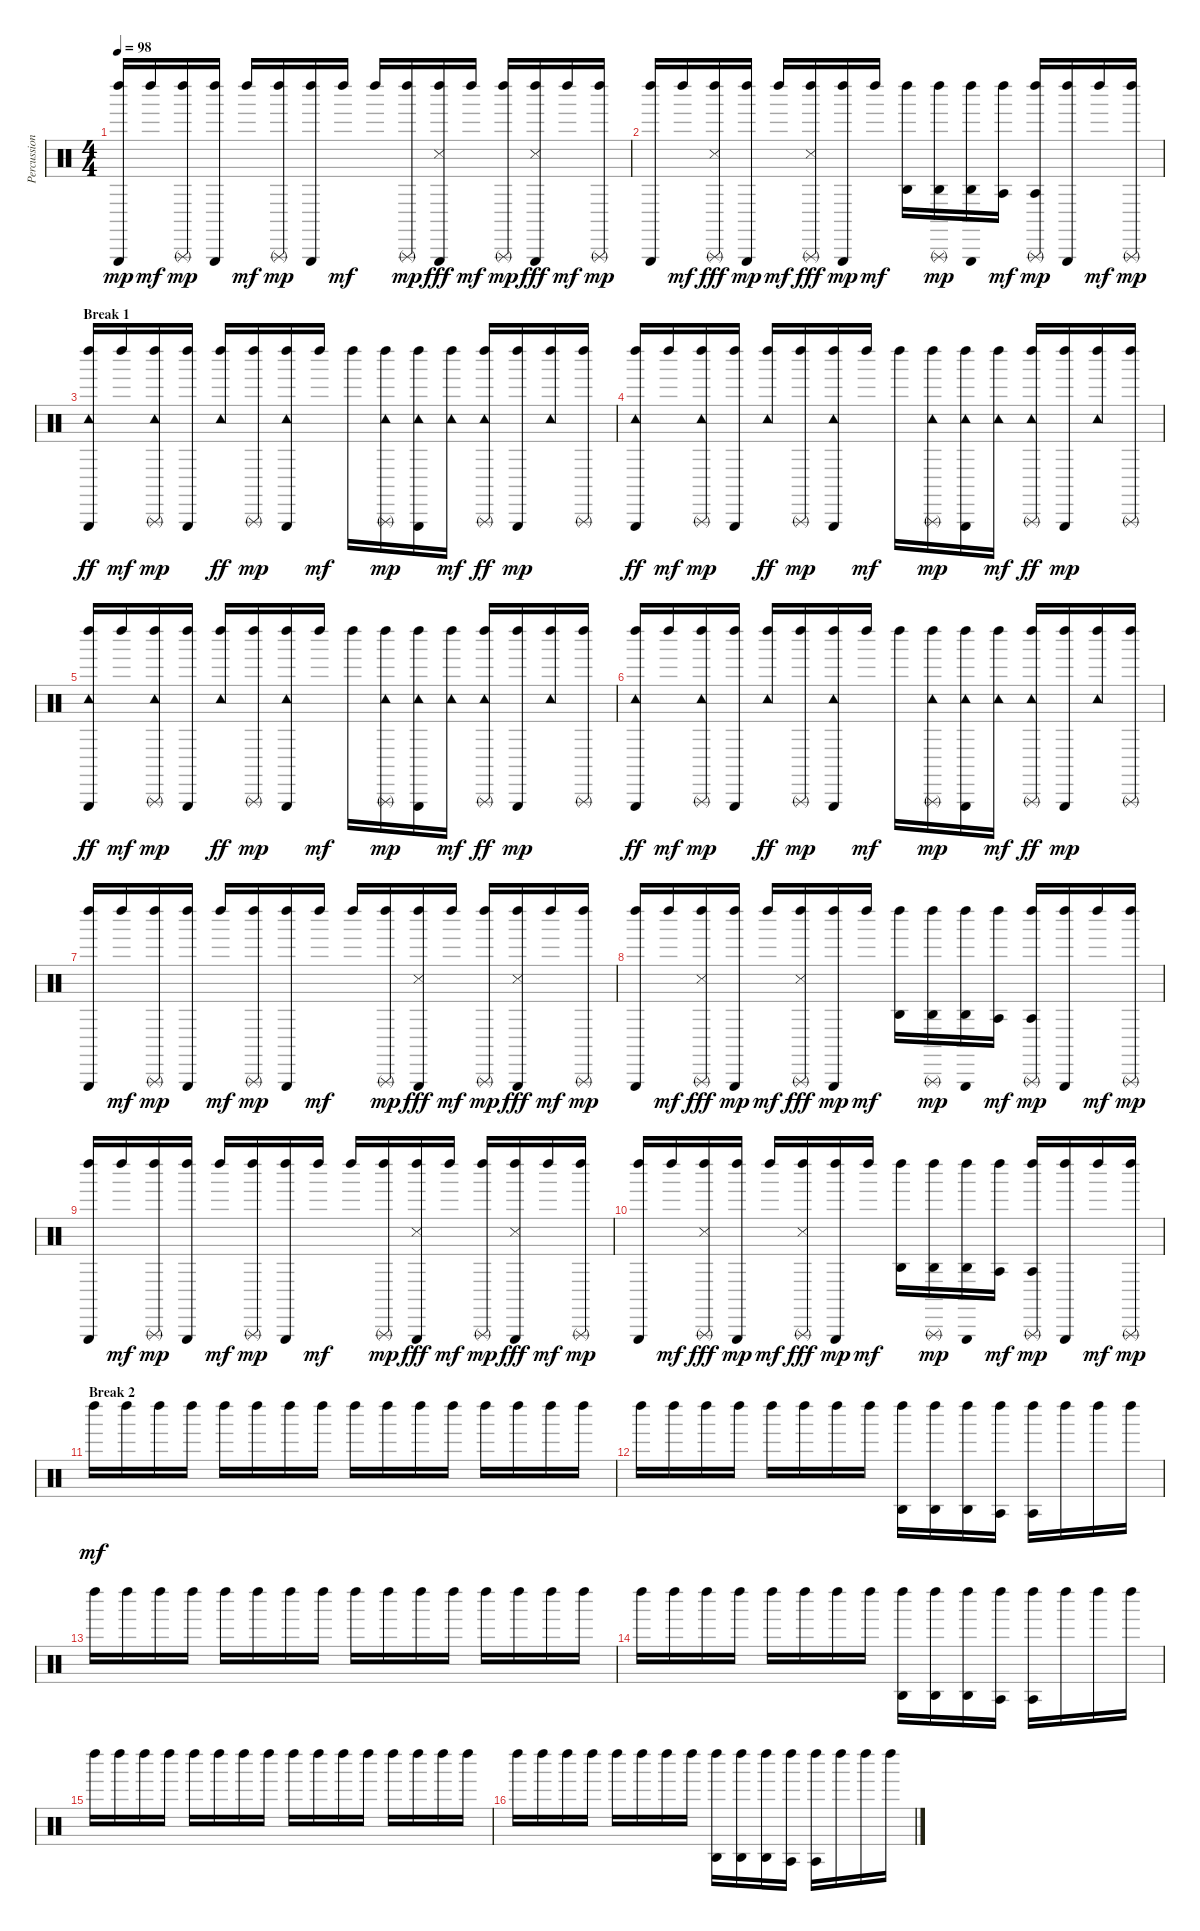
\track ("Percussions" "Percussion") {instrument percussion}
\staff {score}
\articulation defaults
\ts (4 4)
\tempo 98
\clef neutral
\ks c
("Left Maraca (hit)" "Triangle (hit)").16{dy mp} "Left Maraca (hit)".16{dy mf} ("Left Maraca (hit)" "Triangle (rnute)").16{dy mp} ("Left Maraca (hit)" "Triangle (hit)").16 "Left Maraca (hit)".16{dy mf} ("Left Maraca (hit)" "Triangle (rnute)").16{dy mp} ("Left Maraca (hit)" "Triangle (hit)").16 "Left Maraca (hit)".16{dy mf} "Left Maraca (hit)".16 ("Left Maraca (hit)" "Triangle (rnute)").16{dy mp} ("Left Maraca (hit)" "Triangle (hit)" "Snare (side stick) 3").16{dy fff} "Left Maraca (hit)".16{dy mf} ("Left Maraca (hit)" "Triangle (rnute)").16{dy mp} ("Left Maraca (hit)" "Triangle (hit)" "Snare (side stick) 3").16{dy fff} "Left Maraca (hit)".16{dy mf} ("Left Maraca (hit)" "Triangle (rnute)").16{dy mp} |
("Left Maraca (hit)" "Triangle (hit)").16 "Left Maraca (hit)".16{dy mf} ("Left Maraca (hit)" "Triangle (rnute)" "Snare (side stick) 3").16{dy fff} ("Left Maraca (hit)" "Triangle (hit)").16{dy mp} "Left Maraca (hit)".16{dy mf} ("Left Maraca (hit)" "Triangle (rnute)" "Snare (side stick) 3").16{dy fff} ("Left Maraca (hit)" "Triangle (hit)").16{dy mp} "Left Maraca (hit)".16{dy mf} ("Left Maraca (hit)" "Agogo high (hit)").16 ("Left Maraca (hit)" "Triangle (rnute)" "Agogo high (hit)").16{dy mp} ("Left Maraca (hit)" "Triangle (hit)" "Agogo high (hit)").16 ("Left Maraca (hit)" "Agogo tow (hit)").16{dy mf} ("Left Maraca (hit)" "Triangle (rnute)" "Agogo tow (hit)").16{dy mp} ("Left Maraca (hit)" "Triangle (hit)").16 "Left Maraca (hit)".16{dy mf} ("Left Maraca (hit)" "Triangle (rnute)").16{dy mp} |
\section ("" "Break 1")
("Left Maraca (hit)" "Triangle (hit)" "Tambourine (hit)").16{dy ff} "Left Maraca (hit)".16{dy mf} ("Left Maraca (hit)" "Triangle (rnute)" "Tambourine (hit)").16{dy mp} ("Left Maraca (hit)" "Triangle (hit)").16 ("Left Maraca (hit)" "Tambourine (hit)").16{dy ff} ("Left Maraca (hit)" "Triangle (rnute)").16{dy mp} ("Left Maraca (hit)" "Triangle (hit)" "Tambourine (hit)").16 "Left Maraca (hit)".16{dy mf} "Left Maraca (hit)".16 ("Left Maraca (hit)" "Triangle (rnute)" "Tambourine (hit)").16{dy mp} ("Left Maraca (hit)" "Triangle (hit)" "Tambourine (hit)").16 ("Left Maraca (hit)" "Tambourine (hit)").16{dy mf} ("Left Maraca (hit)" "Triangle (rnute)" "Tambourine (hit)").16{dy ff} ("Left Maraca (hit)" "Triangle (hit)").16{dy mp} ("Left Maraca (hit)" "Tambourine (hit)").16 ("Left Maraca (hit)" "Triangle (rnute)").16 |
("Left Maraca (hit)" "Triangle (hit)" "Tambourine (hit)").16{dy ff} "Left Maraca (hit)".16{dy mf} ("Left Maraca (hit)" "Triangle (rnute)" "Tambourine (hit)").16{dy mp} ("Left Maraca (hit)" "Triangle (hit)").16 ("Left Maraca (hit)" "Tambourine (hit)").16{dy ff} ("Left Maraca (hit)" "Triangle (rnute)").16{dy mp} ("Left Maraca (hit)" "Triangle (hit)" "Tambourine (hit)").16 "Left Maraca (hit)".16{dy mf} "Left Maraca (hit)".16 ("Left Maraca (hit)" "Triangle (rnute)" "Tambourine (hit)").16{dy mp} ("Left Maraca (hit)" "Triangle (hit)" "Tambourine (hit)").16 ("Left Maraca (hit)" "Tambourine (hit)").16{dy mf} ("Left Maraca (hit)" "Triangle (rnute)" "Tambourine (hit)").16{dy ff} ("Left Maraca (hit)" "Triangle (hit)").16{dy mp} ("Left Maraca (hit)" "Tambourine (hit)").16 ("Left Maraca (hit)" "Triangle (rnute)").16 |
("Left Maraca (hit)" "Triangle (hit)" "Tambourine (hit)").16{dy ff} "Left Maraca (hit)".16{dy mf} ("Left Maraca (hit)" "Triangle (rnute)" "Tambourine (hit)").16{dy mp} ("Left Maraca (hit)" "Triangle (hit)").16 ("Left Maraca (hit)" "Tambourine (hit)").16{dy ff} ("Left Maraca (hit)" "Triangle (rnute)").16{dy mp} ("Left Maraca (hit)" "Triangle (hit)" "Tambourine (hit)").16 "Left Maraca (hit)".16{dy mf} "Left Maraca (hit)".16 ("Left Maraca (hit)" "Triangle (rnute)" "Tambourine (hit)").16{dy mp} ("Left Maraca (hit)" "Triangle (hit)" "Tambourine (hit)").16 ("Left Maraca (hit)" "Tambourine (hit)").16{dy mf} ("Left Maraca (hit)" "Triangle (rnute)" "Tambourine (hit)").16{dy ff} ("Left Maraca (hit)" "Triangle (hit)").16{dy mp} ("Left Maraca (hit)" "Tambourine (hit)").16 ("Left Maraca (hit)" "Triangle (rnute)").16 |
("Left Maraca (hit)" "Triangle (hit)" "Tambourine (hit)").16{dy ff} "Left Maraca (hit)".16{dy mf} ("Left Maraca (hit)" "Triangle (rnute)" "Tambourine (hit)").16{dy mp} ("Left Maraca (hit)" "Triangle (hit)").16 ("Left Maraca (hit)" "Tambourine (hit)").16{dy ff} ("Left Maraca (hit)" "Triangle (rnute)").16{dy mp} ("Left Maraca (hit)" "Triangle (hit)" "Tambourine (hit)").16 "Left Maraca (hit)".16{dy mf} "Left Maraca (hit)".16 ("Left Maraca (hit)" "Triangle (rnute)" "Tambourine (hit)").16{dy mp} ("Left Maraca (hit)" "Triangle (hit)" "Tambourine (hit)").16 ("Left Maraca (hit)" "Tambourine (hit)").16{dy mf} ("Left Maraca (hit)" "Triangle (rnute)" "Tambourine (hit)").16{dy ff} ("Left Maraca (hit)" "Triangle (hit)").16{dy mp} ("Left Maraca (hit)" "Tambourine (hit)").16 ("Left Maraca (hit)" "Triangle (rnute)").16 |
("Left Maraca (hit)" "Triangle (hit)").16 "Left Maraca (hit)".16{dy mf} ("Left Maraca (hit)" "Triangle (rnute)").16{dy mp} ("Left Maraca (hit)" "Triangle (hit)").16 "Left Maraca (hit)".16{dy mf} ("Left Maraca (hit)" "Triangle (rnute)").16{dy mp} ("Left Maraca (hit)" "Triangle (hit)").16 "Left Maraca (hit)".16{dy mf} "Left Maraca (hit)".16 ("Left Maraca (hit)" "Triangle (rnute)").16{dy mp} ("Left Maraca (hit)" "Triangle (hit)" "Snare (side stick) 3").16{dy fff} "Left Maraca (hit)".16{dy mf} ("Left Maraca (hit)" "Triangle (rnute)").16{dy mp} ("Left Maraca (hit)" "Triangle (hit)" "Snare (side stick) 3").16{dy fff} "Left Maraca (hit)".16{dy mf} ("Left Maraca (hit)" "Triangle (rnute)").16{dy mp} |
("Left Maraca (hit)" "Triangle (hit)").16 "Left Maraca (hit)".16{dy mf} ("Left Maraca (hit)" "Triangle (rnute)" "Snare (side stick) 3").16{dy fff} ("Left Maraca (hit)" "Triangle (hit)").16{dy mp} "Left Maraca (hit)".16{dy mf} ("Left Maraca (hit)" "Triangle (rnute)" "Snare (side stick) 3").16{dy fff} ("Left Maraca (hit)" "Triangle (hit)").16{dy mp} "Left Maraca (hit)".16{dy mf} ("Left Maraca (hit)" "Agogo high (hit)").16 ("Left Maraca (hit)" "Triangle (rnute)" "Agogo high (hit)").16{dy mp} ("Left Maraca (hit)" "Triangle (hit)" "Agogo high (hit)").16 ("Left Maraca (hit)" "Agogo tow (hit)").16{dy mf} ("Left Maraca (hit)" "Triangle (rnute)" "Agogo tow (hit)").16{dy mp} ("Left Maraca (hit)" "Triangle (hit)").16 "Left Maraca (hit)".16{dy mf} ("Left Maraca (hit)" "Triangle (rnute)").16{dy mp} |
("Left Maraca (hit)" "Triangle (hit)").16 "Left Maraca (hit)".16{dy mf} ("Left Maraca (hit)" "Triangle (rnute)").16{dy mp} ("Left Maraca (hit)" "Triangle (hit)").16 "Left Maraca (hit)".16{dy mf} ("Left Maraca (hit)" "Triangle (rnute)").16{dy mp} ("Left Maraca (hit)" "Triangle (hit)").16 "Left Maraca (hit)".16{dy mf} "Left Maraca (hit)".16 ("Left Maraca (hit)" "Triangle (rnute)").16{dy mp} ("Left Maraca (hit)" "Triangle (hit)" "Snare (side stick) 3").16{dy fff} "Left Maraca (hit)".16{dy mf} ("Left Maraca (hit)" "Triangle (rnute)").16{dy mp} ("Left Maraca (hit)" "Triangle (hit)" "Snare (side stick) 3").16{dy fff} "Left Maraca (hit)".16{dy mf} ("Left Maraca (hit)" "Triangle (rnute)").16{dy mp} |
("Left Maraca (hit)" "Triangle (hit)").16 "Left Maraca (hit)".16{dy mf} ("Left Maraca (hit)" "Triangle (rnute)" "Snare (side stick) 3").16{dy fff} ("Left Maraca (hit)" "Triangle (hit)").16{dy mp} "Left Maraca (hit)".16{dy mf} ("Left Maraca (hit)" "Triangle (rnute)" "Snare (side stick) 3").16{dy fff} ("Left Maraca (hit)" "Triangle (hit)").16{dy mp} "Left Maraca (hit)".16{dy mf} ("Left Maraca (hit)" "Agogo high (hit)").16 ("Left Maraca (hit)" "Triangle (rnute)" "Agogo high (hit)").16{dy mp} ("Left Maraca (hit)" "Triangle (hit)" "Agogo high (hit)").16 ("Left Maraca (hit)" "Agogo tow (hit)").16{dy mf} ("Left Maraca (hit)" "Triangle (rnute)" "Agogo tow (hit)").16{dy mp} ("Left Maraca (hit)" "Triangle (hit)").16 "Left Maraca (hit)".16{dy mf} ("Left Maraca (hit)" "Triangle (rnute)").16{dy mp} |
\section ("" "Break 2")
"Left Maraca (hit)".16{dy mf} "Left Maraca (hit)".16 "Left Maraca (hit)".16 "Left Maraca (hit)".16 "Left Maraca (hit)".16 "Left Maraca (hit)".16 "Left Maraca (hit)".16 "Left Maraca (hit)".16 "Left Maraca (hit)".16 "Left Maraca (hit)".16 "Left Maraca (hit)".16 "Left Maraca (hit)".16 "Left Maraca (hit)".16 "Left Maraca (hit)".16 "Left Maraca (hit)".16 "Left Maraca (hit)".16 |
"Left Maraca (hit)".16 "Left Maraca (hit)".16 "Left Maraca (hit)".16 "Left Maraca (hit)".16 "Left Maraca (hit)".16 "Left Maraca (hit)".16 "Left Maraca (hit)".16 "Left Maraca (hit)".16 ("Left Maraca (hit)" "Agogo high (hit)").16 ("Left Maraca (hit)" "Agogo high (hit)").16 ("Left Maraca (hit)" "Agogo high (hit)").16 ("Left Maraca (hit)" "Agogo tow (hit)").16 ("Left Maraca (hit)" "Agogo tow (hit)").16 "Left Maraca (hit)".16 "Left Maraca (hit)".16 "Left Maraca (hit)".16 |
"Left Maraca (hit)".16 "Left Maraca (hit)".16 "Left Maraca (hit)".16 "Left Maraca (hit)".16 "Left Maraca (hit)".16 "Left Maraca (hit)".16 "Left Maraca (hit)".16 "Left Maraca (hit)".16 "Left Maraca (hit)".16 "Left Maraca (hit)".16 "Left Maraca (hit)".16 "Left Maraca (hit)".16 "Left Maraca (hit)".16 "Left Maraca (hit)".16 "Left Maraca (hit)".16 "Left Maraca (hit)".16 |
"Left Maraca (hit)".16 "Left Maraca (hit)".16 "Left Maraca (hit)".16 "Left Maraca (hit)".16 "Left Maraca (hit)".16 "Left Maraca (hit)".16 "Left Maraca (hit)".16 "Left Maraca (hit)".16 ("Left Maraca (hit)" "Agogo high (hit)").16 ("Left Maraca (hit)" "Agogo high (hit)").16 ("Left Maraca (hit)" "Agogo high (hit)").16 ("Left Maraca (hit)" "Agogo tow (hit)").16 ("Left Maraca (hit)" "Agogo tow (hit)").16 "Left Maraca (hit)".16 "Left Maraca (hit)".16 "Left Maraca (hit)".16 |
"Left Maraca (hit)".16 "Left Maraca (hit)".16 "Left Maraca (hit)".16 "Left Maraca (hit)".16 "Left Maraca (hit)".16 "Left Maraca (hit)".16 "Left Maraca (hit)".16 "Left Maraca (hit)".16 "Left Maraca (hit)".16 "Left Maraca (hit)".16 "Left Maraca (hit)".16 "Left Maraca (hit)".16 "Left Maraca (hit)".16 "Left Maraca (hit)".16 "Left Maraca (hit)".16 "Left Maraca (hit)".16 |
"Left Maraca (hit)".16 "Left Maraca (hit)".16 "Left Maraca (hit)".16 "Left Maraca (hit)".16 "Left Maraca (hit)".16 "Left Maraca (hit)".16 "Left Maraca (hit)".16 "Left Maraca (hit)".16 ("Left Maraca (hit)" "Agogo high (hit)").16 ("Left Maraca (hit)" "Agogo high (hit)").16 ("Left Maraca (hit)" "Agogo high (hit)").16 ("Left Maraca (hit)" "Agogo tow (hit)").16 ("Left Maraca (hit)" "Agogo tow (hit)").16 "Left Maraca (hit)".16 "Left Maraca (hit)".16 "Left Maraca (hit)".16
